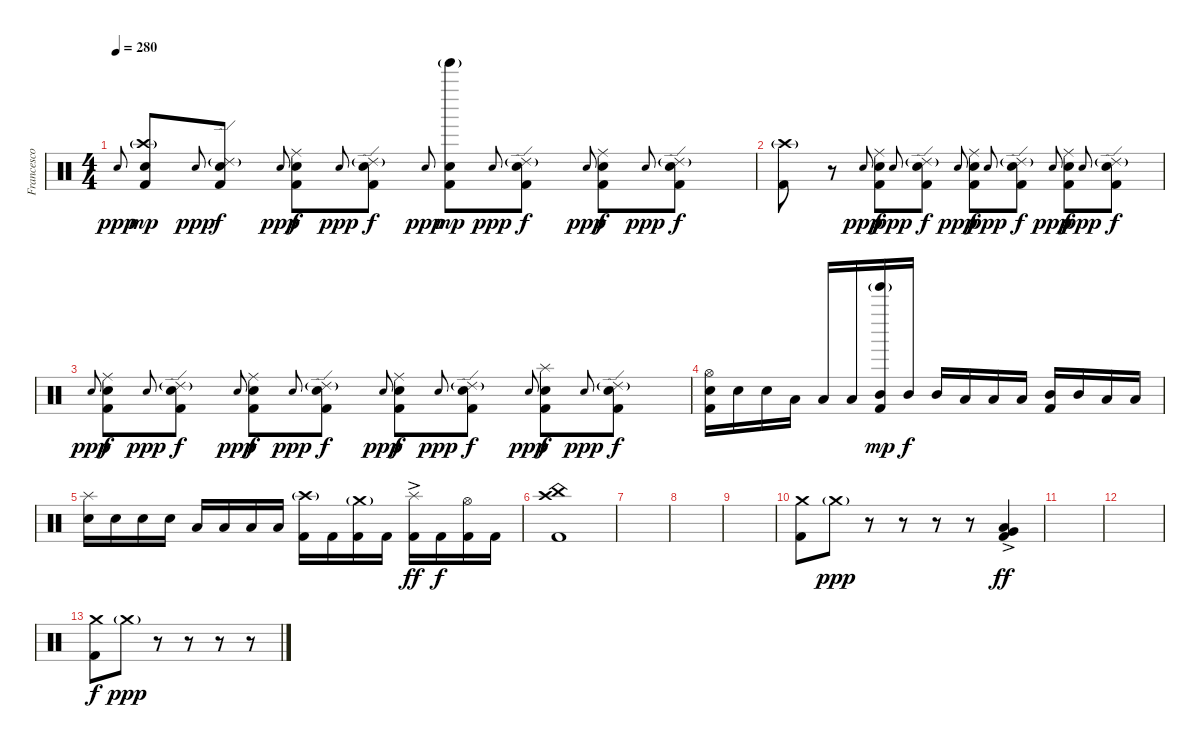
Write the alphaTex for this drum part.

\track ("Francesco Ferrini" "Francesco ") {instrument percussion}
\staff {score}
\articulation defaults
\ts (4 4)
\tempo 280
\clef neutral
\ks c "Electric Snare (hit)"{h}.8{gr onbeat dy ppp}
("Crash high (hit)"{g} "Electric Snare (hit)" "Kick (hit) 2").8{dy mp} "Electric Snare (hit)"{h}.8{gr onbeat dy ppp} ("Ride (edge) 2"{g} "Electric Snare (hit)" "Kick (hit) 2").8{dy f} "Electric Snare (hit)"{h}.8{gr onbeat dy ppp} ("Ride (middle)" "Electric Snare (hit)" "Kick (hit) 2").8{dy f} "Electric Snare (hit)"{h}.8{gr onbeat dy ppp} ("Ride (edge) 2"{g} "Electric Snare (hit)" "Kick (hit) 2").8{dy f} "Electric Snare (hit)"{h}.8{gr onbeat dy ppp} ("Tinkle Bell (hit)"{g} "Electric Snare (hit)" "Kick (hit) 2").8{dy mp} "Electric Snare (hit)"{h}.8{gr onbeat dy ppp} ("Ride (edge) 2"{g} "Electric Snare (hit)" "Kick (hit) 2").8{dy f} "Electric Snare (hit)"{h}.8{gr onbeat dy ppp} ("Ride (middle)" "Electric Snare (hit)" "Kick (hit) 2").8{dy f} "Electric Snare (hit)"{h}.8{gr onbeat dy ppp} ("Ride (edge) 2"{g} "Electric Snare (hit)" "Kick (hit) 2").8{dy f} |
("Crash high (hit)"{g} "Kick (hit) 2").8 r.8 "Electric Snare (hit)"{h}.8{gr onbeat dy ppp} ("Ride (middle)" "Electric Snare (hit)" "Kick (hit) 2").8{dy f} "Electric Snare (hit)"{h}.8{gr onbeat dy ppp} ("Ride (edge) 2"{g} "Electric Snare (hit)" "Kick (hit) 2").8{dy f} "Electric Snare (hit)"{h}.8{gr onbeat dy ppp} ("Ride (middle)" "Electric Snare (hit)" "Kick (hit) 2").8{dy f} "Electric Snare (hit)"{h}.8{gr onbeat dy ppp} ("Ride (edge) 2"{g} "Electric Snare (hit)" "Kick (hit) 2").8{dy f} "Electric Snare (hit)"{h}.8{gr onbeat dy ppp} ("Ride (middle)" "Electric Snare (hit)" "Kick (hit) 2").8{dy f} "Electric Snare (hit)"{h}.8{gr onbeat dy ppp} ("Ride (edge) 2"{g} "Electric Snare (hit)" "Kick (hit) 2").8{dy f} |
"Electric Snare (hit)"{h}.8{gr onbeat dy ppp} ("Ride (middle)" "Electric Snare (hit)" "Kick (hit) 2").8{dy f} "Electric Snare (hit)"{h}.8{gr onbeat dy ppp} ("Ride (edge) 2"{g} "Electric Snare (hit)" "Kick (hit) 2").8{dy f} "Electric Snare (hit)"{h}.8{gr onbeat dy ppp} ("Ride (middle)" "Electric Snare (hit)" "Kick (hit) 2").8{dy f} "Electric Snare (hit)"{h}.8{gr onbeat dy ppp} ("Ride (edge) 2"{g} "Electric Snare (hit)" "Kick (hit) 2").8{dy f} "Electric Snare (hit)"{h}.8{gr onbeat dy ppp} ("Ride (middle)" "Electric Snare (hit)" "Kick (hit) 2").8{dy f} "Electric Snare (hit)"{h}.8{gr onbeat dy ppp} ("Ride (edge) 2"{g} "Electric Snare (hit)" "Kick (hit) 2").8{dy f} "Electric Snare (hit)"{h}.8{gr onbeat dy ppp} ("Splash (hit)" "Electric Snare (hit)" "Kick (hit) 2").8{dy f} "Electric Snare (hit)"{h}.8{gr onbeat dy ppp} ("Ride (edge) 2"{g} "Electric Snare (hit)" "Kick (hit) 2").8{dy f} |
("Hi-Hat (open)" "Electric Snare (hit)" "Kick (hit) 2").16 "Electric Snare (hit)".16 "Electric Snare (hit)".16 "Low Tom (hit)".16 "Low Tom (hit)".16 "Low Tom (hit)".16 ("Tinkle Bell (hit)"{g} "Mid Tom (hit)" "Kick (hit) 2").16{dy mp} "Mid Tom (hit)".16{dy f} "Mid Tom (hit)".16 "Low Tom (hit)".16 "Low Tom (hit)".16 "Low Tom (hit)".16 ("Mid Tom (hit)" "Kick (hit) 2").16 "Mid Tom (hit)".16 "Low Tom (hit)".16 "Low Tom (hit)".16 |
("Splash (hit)" "Electric Snare (hit)").16 "Electric Snare (hit)".16 "Electric Snare (hit)".16 "Electric Snare (hit)".16 "Low Tom (hit)".16 "Low Tom (hit)".16 "Low Tom (hit)".16 "Low Tom (hit)".16 ("Crash high (hit)"{g} "Kick (hit) 2").16 "Kick (hit) 2".16 ("Crash medium (hit)"{g} "Kick (hit) 2").16 "Kick (hit) 2".16 ("Splash (hit)"{ac} "Kick (hit) 2").16{dy ff} "Kick (hit) 2".16{dy f} ("Hi-Hat (open)" "Kick (hit) 2").16 "Kick (hit) 2".16 |
("China (hit)" "Crash high (hit)" "Kick (hit) 2").1 |
|
|
|
("Crash medium (hit)" "Kick (hit) 2").8 "Crash medium (hit)"{g}.8{dy ppp} r.8 r.8 r.8 r.8 ("Very Low Tom (hit)"{ac} "Low Floor Tom (hit)"{ac} "Kick (hit) 2").4{dy ff} |
|
|
("Crash medium (hit)" "Kick (hit) 2").8{dy f} "Crash medium (hit)"{g}.8{dy ppp} r.8 r.8 r.8 r.8
